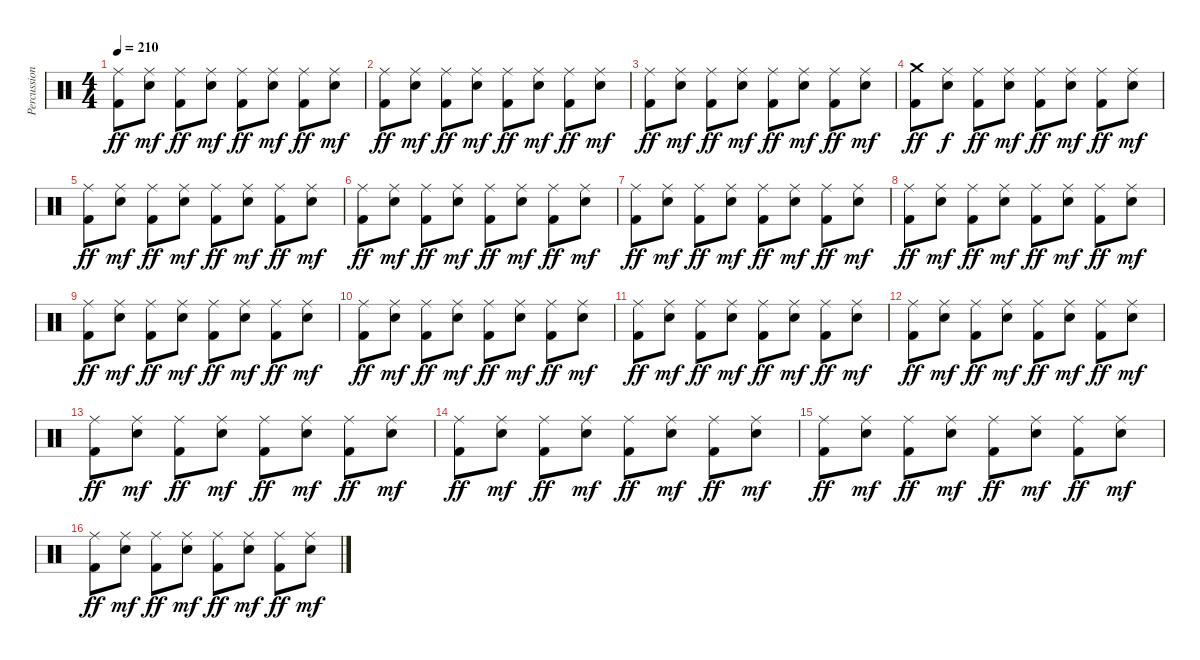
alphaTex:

\track ("Percussion" "Percussion") {instrument percussion}
\staff {score}
\articulation defaults
\ts (4 4)
\tempo 210
\clef neutral
\ks c
("Ride (middle)" "Kick (hit) 2").8{dy ff} ("Ride (middle)" "Snare (hit) 2").8{dy mf} ("Ride (middle)" "Kick (hit) 2").8{dy ff} ("Ride (middle)" "Snare (hit) 2").8{dy mf} ("Ride (middle)" "Kick (hit) 2").8{dy ff} ("Ride (middle)" "Snare (hit) 2").8{dy mf} ("Ride (middle)" "Kick (hit) 2").8{dy ff} ("Ride (middle)" "Snare (hit) 2").8{dy mf} |
("Ride (middle)" "Kick (hit) 2").8{dy ff} ("Ride (middle)" "Snare (hit) 2").8{dy mf} ("Ride (middle)" "Kick (hit) 2").8{dy ff} ("Ride (middle)" "Snare (hit) 2").8{dy mf} ("Ride (middle)" "Kick (hit) 2").8{dy ff} ("Ride (middle)" "Snare (hit) 2").8{dy mf} ("Ride (middle)" "Kick (hit) 2").8{dy ff} ("Ride (middle)" "Snare (hit) 2").8{dy mf} |
("Ride (middle)" "Kick (hit) 2").8{dy ff} ("Ride (middle)" "Snare (hit) 2").8{dy mf} ("Ride (middle)" "Kick (hit) 2").8{dy ff} ("Ride (middle)" "Snare (hit) 2").8{dy mf} ("Ride (middle)" "Kick (hit) 2").8{dy ff} ("Ride (middle)" "Snare (hit) 2").8{dy mf} ("Ride (middle)" "Kick (hit) 2").8{dy ff} ("Ride (middle)" "Snare (hit) 2").8{dy mf} |
\section ("" "")
("Crash medium (hit)" "Kick (hit) 2").8{dy ff} ("Ride (middle)" "Snare (hit) 2").8{dy f} ("Ride (middle)" "Kick (hit) 2").8{dy ff} ("Ride (middle)" "Snare (hit) 2").8{dy mf} ("Ride (middle)" "Kick (hit) 2").8{dy ff} ("Ride (middle)" "Snare (hit) 2").8{dy mf} ("Ride (middle)" "Kick (hit) 2").8{dy ff} ("Ride (middle)" "Snare (hit) 2").8{dy mf} |
("Ride (middle)" "Kick (hit) 2").8{dy ff} ("Ride (middle)" "Snare (hit) 2").8{dy mf} ("Ride (middle)" "Kick (hit) 2").8{dy ff} ("Ride (middle)" "Snare (hit) 2").8{dy mf} ("Ride (middle)" "Kick (hit) 2").8{dy ff} ("Ride (middle)" "Snare (hit) 2").8{dy mf} ("Ride (middle)" "Kick (hit) 2").8{dy ff} ("Ride (middle)" "Snare (hit) 2").8{dy mf} |
("Ride (middle)" "Kick (hit) 2").8{dy ff} ("Ride (middle)" "Snare (hit) 2").8{dy mf} ("Ride (middle)" "Kick (hit) 2").8{dy ff} ("Ride (middle)" "Snare (hit) 2").8{dy mf} ("Ride (middle)" "Kick (hit) 2").8{dy ff} ("Ride (middle)" "Snare (hit) 2").8{dy mf} ("Ride (middle)" "Kick (hit) 2").8{dy ff} ("Ride (middle)" "Snare (hit) 2").8{dy mf} |
("Ride (middle)" "Kick (hit) 2").8{dy ff} ("Ride (middle)" "Snare (hit) 2").8{dy mf} ("Ride (middle)" "Kick (hit) 2").8{dy ff} ("Ride (middle)" "Snare (hit) 2").8{dy mf} ("Ride (middle)" "Kick (hit) 2").8{dy ff} ("Ride (middle)" "Snare (hit) 2").8{dy mf} ("Ride (middle)" "Kick (hit) 2").8{dy ff} ("Ride (middle)" "Snare (hit) 2").8{dy mf} |
("Ride (middle)" "Kick (hit) 2").8{dy ff} ("Ride (middle)" "Snare (hit) 2").8{dy mf} ("Ride (middle)" "Kick (hit) 2").8{dy ff} ("Ride (middle)" "Snare (hit) 2").8{dy mf} ("Ride (middle)" "Kick (hit) 2").8{dy ff} ("Ride (middle)" "Snare (hit) 2").8{dy mf} ("Ride (middle)" "Kick (hit) 2").8{dy ff} ("Ride (middle)" "Snare (hit) 2").8{dy mf} |
("Ride (middle)" "Kick (hit) 2").8{dy ff} ("Ride (middle)" "Snare (hit) 2").8{dy mf} ("Ride (middle)" "Kick (hit) 2").8{dy ff} ("Ride (middle)" "Snare (hit) 2").8{dy mf} ("Ride (middle)" "Kick (hit) 2").8{dy ff} ("Ride (middle)" "Snare (hit) 2").8{dy mf} ("Ride (middle)" "Kick (hit) 2").8{dy ff} ("Ride (middle)" "Snare (hit) 2").8{dy mf} |
("Ride (middle)" "Kick (hit) 2").8{dy ff} ("Ride (middle)" "Snare (hit) 2").8{dy mf} ("Ride (middle)" "Kick (hit) 2").8{dy ff} ("Ride (middle)" "Snare (hit) 2").8{dy mf} ("Ride (middle)" "Kick (hit) 2").8{dy ff} ("Ride (middle)" "Snare (hit) 2").8{dy mf} ("Ride (middle)" "Kick (hit) 2").8{dy ff} ("Ride (middle)" "Snare (hit) 2").8{dy mf} |
("Ride (middle)" "Kick (hit) 2").8{dy ff} ("Ride (middle)" "Snare (hit) 2").8{dy mf} ("Ride (middle)" "Kick (hit) 2").8{dy ff} ("Ride (middle)" "Snare (hit) 2").8{dy mf} ("Ride (middle)" "Kick (hit) 2").8{dy ff} ("Ride (middle)" "Snare (hit) 2").8{dy mf} ("Ride (middle)" "Kick (hit) 2").8{dy ff} ("Ride (middle)" "Snare (hit) 2").8{dy mf} |
("Ride (middle)" "Kick (hit) 2").8{dy ff} ("Ride (middle)" "Snare (hit) 2").8{dy mf} ("Ride (middle)" "Kick (hit) 2").8{dy ff} ("Ride (middle)" "Snare (hit) 2").8{dy mf} ("Ride (middle)" "Kick (hit) 2").8{dy ff} ("Ride (middle)" "Snare (hit) 2").8{dy mf} ("Ride (middle)" "Kick (hit) 2").8{dy ff} ("Ride (middle)" "Snare (hit) 2").8{dy mf} |
("Ride (middle)" "Kick (hit) 2").8{dy ff} ("Ride (middle)" "Snare (hit) 2").8{dy mf} ("Ride (middle)" "Kick (hit) 2").8{dy ff} ("Ride (middle)" "Snare (hit) 2").8{dy mf} ("Ride (middle)" "Kick (hit) 2").8{dy ff} ("Ride (middle)" "Snare (hit) 2").8{dy mf} ("Ride (middle)" "Kick (hit) 2").8{dy ff} ("Ride (middle)" "Snare (hit) 2").8{dy mf} |
("Ride (middle)" "Kick (hit) 2").8{dy ff} ("Ride (middle)" "Snare (hit) 2").8{dy mf} ("Ride (middle)" "Kick (hit) 2").8{dy ff} ("Ride (middle)" "Snare (hit) 2").8{dy mf} ("Ride (middle)" "Kick (hit) 2").8{dy ff} ("Ride (middle)" "Snare (hit) 2").8{dy mf} ("Ride (middle)" "Kick (hit) 2").8{dy ff} ("Ride (middle)" "Snare (hit) 2").8{dy mf} |
("Ride (middle)" "Kick (hit) 2").8{dy ff} ("Ride (middle)" "Snare (hit) 2").8{dy mf} ("Ride (middle)" "Kick (hit) 2").8{dy ff} ("Ride (middle)" "Snare (hit) 2").8{dy mf} ("Ride (middle)" "Kick (hit) 2").8{dy ff} ("Ride (middle)" "Snare (hit) 2").8{dy mf} ("Ride (middle)" "Kick (hit) 2").8{dy ff} ("Ride (middle)" "Snare (hit) 2").8{dy mf} |
("Ride (middle)" "Kick (hit) 2").8{dy ff} ("Ride (middle)" "Snare (hit) 2").8{dy mf} ("Ride (middle)" "Kick (hit) 2").8{dy ff} ("Ride (middle)" "Snare (hit) 2").8{dy mf} ("Ride (middle)" "Kick (hit) 2").8{dy ff} ("Ride (middle)" "Snare (hit) 2").8{dy mf} ("Ride (middle)" "Kick (hit) 2").8{dy ff} ("Ride (middle)" "Snare (hit) 2").8{dy mf}
